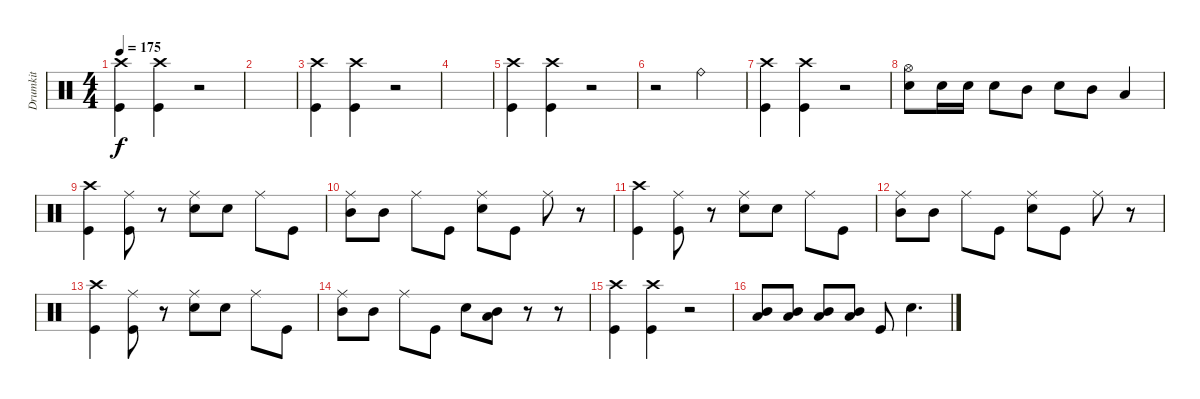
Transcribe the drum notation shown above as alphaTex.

\track ("Drumkit" "Drumkit") {instrument percussion}
\staff {score}
\articulation defaults
\ts (4 4)
\tempo 175
\clef neutral
\ks c
("Crash high (hit)" "Kick (hit)").4{dy f} ("Crash high (hit)" "Kick (hit)").4 r.2 |
|
("Crash high (hit)" "Kick (hit)").4 ("Crash high (hit)" "Kick (hit)").4 r.2 |
|
("Crash high (hit)" "Kick (hit)").4 ("Crash high (hit)" "Kick (hit)").4 r.2 |
r.2 "Ride (bell)".2 |
("Crash high (hit)" "Kick (hit)").4 ("Crash high (hit)" "Kick (hit)").4 r.2 |
("Hi-Hat (open)" "Snare (hit) 2").8 "Snare (hit) 2".16 "Snare (hit) 2".16 "Snare (hit) 2".8 "Mid Tom (hit)".8 "Snare (hit) 2".8 "Mid Tom (hit)".8 "Low Tom (hit)".4 |
("Crash high (hit)" "Kick (hit)").4 ("Ride (middle)" "Kick (hit)").8 r.8 ("Ride (middle)" "Snare (hit) 2").8 "Snare (hit) 2".8 "Ride (middle)".8 "Kick (hit)".8 |
("Ride (middle)" "Mid Tom (hit)").8 "Mid Tom (hit)".8 "Ride (middle)".8 "Kick (hit)".8 ("Ride (middle)" "Snare (hit) 2").8 "Kick (hit)".8 "Ride (middle)".8 r.8 |
("Crash high (hit)" "Kick (hit)").4 ("Ride (middle)" "Kick (hit)").8 r.8 ("Ride (middle)" "Snare (hit) 2").8 "Snare (hit) 2".8 "Ride (middle)".8 "Kick (hit)".8 |
("Ride (middle)" "Mid Tom (hit)").8 "Mid Tom (hit)".8 "Ride (middle)".8 "Kick (hit)".8 ("Ride (middle)" "Snare (hit) 2").8 "Kick (hit)".8 "Ride (middle)".8 r.8 |
("Crash high (hit)" "Kick (hit)").4 ("Ride (middle)" "Kick (hit)").8 r.8 ("Ride (middle)" "Snare (hit) 2").8 "Snare (hit) 2".8 "Ride (middle)".8 "Kick (hit)".8 |
("Ride (middle)" "Mid Tom (hit)").8 "Mid Tom (hit)".8 "Ride (middle)".8 "Kick (hit)".8 "Snare (hit) 2".8 ("Low Tom (hit)" "Mid Tom (hit)").8 r.8 r.8 |
("Crash high (hit)" "Kick (hit)").4 ("Crash high (hit)" "Kick (hit)").4 r.2 |
("Low Tom (hit)" "Mid Tom (hit)").8 ("Mid Tom (hit)" "Low Tom (hit)").8 ("Low Tom (hit)" "Mid Tom (hit)").8 ("Low Tom (hit)" "Mid Tom (hit)").8 "Kick (hit)".8 "Snare (hit) 2".4{d}
